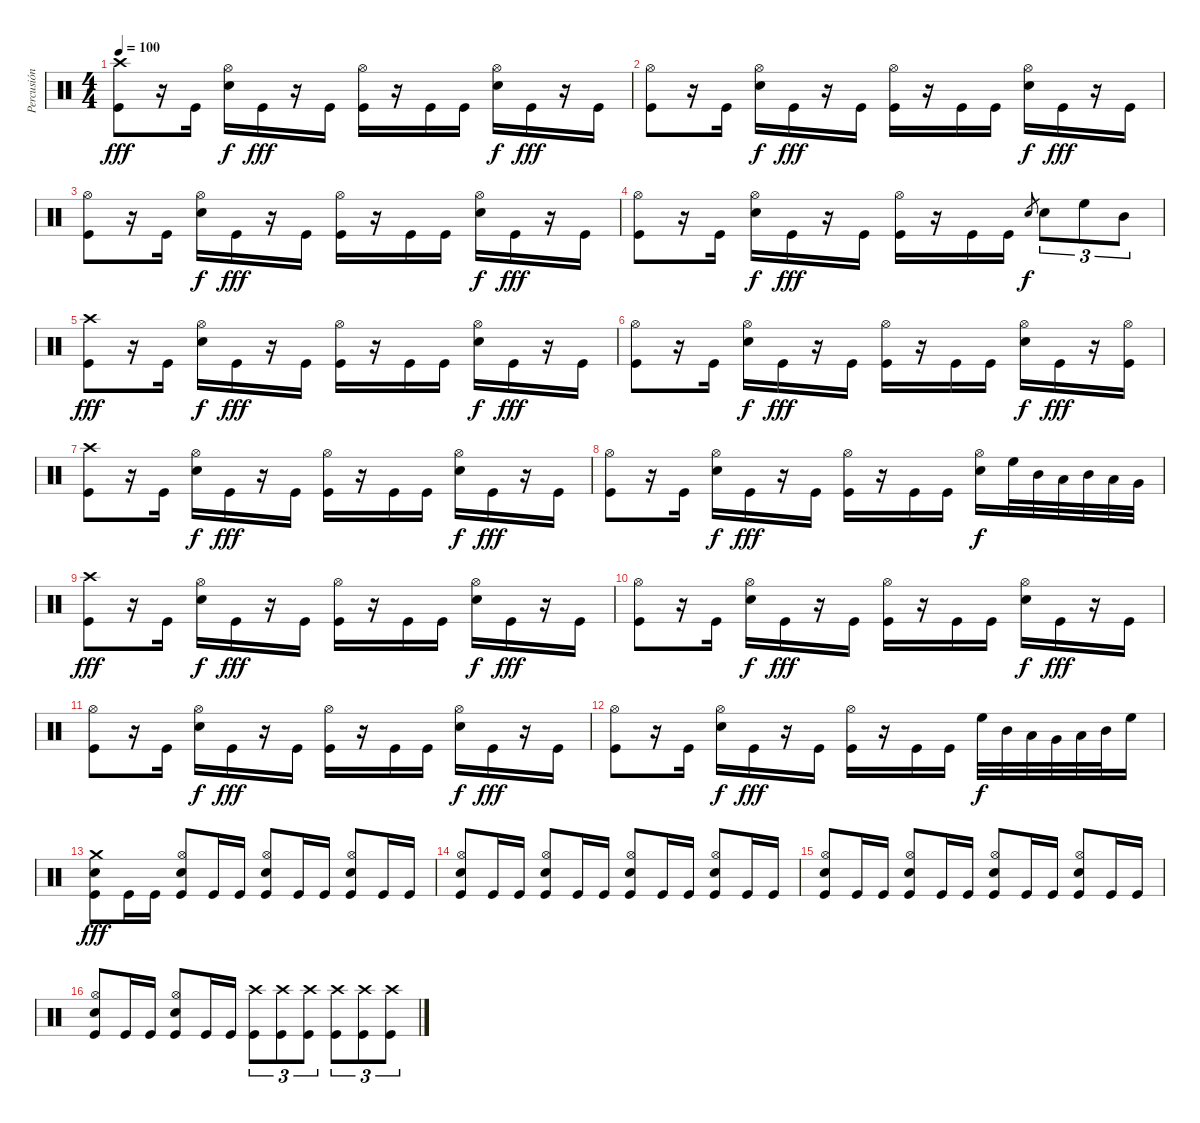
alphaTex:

\track ("Percusión" "Percusión") {instrument percussion}
\staff {score}
\articulation defaults
\ts (4 4)
\tempo 100
\clef neutral
\ks c
("Crash high (hit)" "Kick (hit)").8{dy fff} r.16 "Kick (hit)".16 ("Hi-Hat (open)" "Electric Snare (hit)").16{dy f} "Kick (hit)".16{dy fff} r.16 "Kick (hit)".16 ("Hi-Hat (open)" "Kick (hit)").16 r.16 "Kick (hit)".16 "Kick (hit)".16 ("Hi-Hat (open)" "Electric Snare (hit)").16{dy f} "Kick (hit)".16{dy fff} r.16 "Kick (hit)".16 |
("Hi-Hat (open)" "Kick (hit)").8 r.16 "Kick (hit)".16 ("Hi-Hat (open)" "Electric Snare (hit)").16{dy f} "Kick (hit)".16{dy fff} r.16 "Kick (hit)".16 ("Hi-Hat (open)" "Kick (hit)").16 r.16 "Kick (hit)".16 "Kick (hit)".16 ("Hi-Hat (open)" "Electric Snare (hit)").16{dy f} "Kick (hit)".16{dy fff} r.16 "Kick (hit)".16 |
("Hi-Hat (open)" "Kick (hit)").8 r.16 "Kick (hit)".16 ("Hi-Hat (open)" "Electric Snare (hit)").16{dy f} "Kick (hit)".16{dy fff} r.16 "Kick (hit)".16 ("Hi-Hat (open)" "Kick (hit)").16 r.16 "Kick (hit)".16 "Kick (hit)".16 ("Hi-Hat (open)" "Electric Snare (hit)").16{dy f} "Kick (hit)".16{dy fff} r.16 "Kick (hit)".16 |
("Hi-Hat (open)" "Kick (hit)").8 r.16 "Kick (hit)".16 ("Hi-Hat (open)" "Electric Snare (hit)").16{dy f} "Kick (hit)".16{dy fff} r.16 "Kick (hit)".16 ("Hi-Hat (open)" "Kick (hit)").16 r.16 "Kick (hit)".16 "Kick (hit)".16 "Electric Snare (hit)".8{gr dy f} "Electric Snare (hit)".8{tu (3 2)} "High Floor Tom (hit)".8{tu (3 2)} "Mid Tom (hit)".8{tu (3 2)} |
("Crash high (hit)" "Kick (hit)").8{dy fff} r.16 "Kick (hit)".16 ("Hi-Hat (open)" "Electric Snare (hit)").16{dy f} "Kick (hit)".16{dy fff} r.16 "Kick (hit)".16 ("Hi-Hat (open)" "Kick (hit)").16 r.16 "Kick (hit)".16 "Kick (hit)".16 ("Hi-Hat (open)" "Electric Snare (hit)").16{dy f} "Kick (hit)".16{dy fff} r.16 "Kick (hit)".16 |
("Hi-Hat (open)" "Kick (hit)").8 r.16 "Kick (hit)".16 ("Hi-Hat (open)" "Electric Snare (hit)").16{dy f} "Kick (hit)".16{dy fff} r.16 "Kick (hit)".16 ("Hi-Hat (open)" "Kick (hit)").16 r.16 "Kick (hit)".16 "Kick (hit)".16 ("Hi-Hat (open)" "Electric Snare (hit)").16{dy f} "Kick (hit)".16{dy fff} r.16 ("Hi-Hat (open)" "Kick (hit)").16 |
("Crash high (hit)" "Kick (hit)").8 r.16 "Kick (hit)".16 ("Hi-Hat (open)" "Electric Snare (hit)").16{dy f} "Kick (hit)".16{dy fff} r.16 "Kick (hit)".16 ("Hi-Hat (open)" "Kick (hit)").16 r.16 "Kick (hit)".16 "Kick (hit)".16 ("Hi-Hat (open)" "Electric Snare (hit)").16{dy f} "Kick (hit)".16{dy fff} r.16 "Kick (hit)".16 |
("Hi-Hat (open)" "Kick (hit)").8 r.16 "Kick (hit)".16 ("Hi-Hat (open)" "Electric Snare (hit)").16{dy f} "Kick (hit)".16{dy fff} r.16 "Kick (hit)".16 ("Hi-Hat (open)" "Kick (hit)").16 r.16 "Kick (hit)".16 "Kick (hit)".16 ("Hi-Hat (open)" "Electric Snare (hit)").16{dy f} "High Floor Tom (hit)".32 "Mid Tom (hit)".32 "Low Tom (hit)".32 "Mid Tom (hit)".32 "Low Tom (hit)".32 "Very Low Tom (hit)".32 |
("Crash high (hit)" "Kick (hit)").8{dy fff} r.16 "Kick (hit)".16 ("Hi-Hat (open)" "Electric Snare (hit)").16{dy f} "Kick (hit)".16{dy fff} r.16 "Kick (hit)".16 ("Hi-Hat (open)" "Kick (hit)").16 r.16 "Kick (hit)".16 "Kick (hit)".16 ("Hi-Hat (open)" "Electric Snare (hit)").16{dy f} "Kick (hit)".16{dy fff} r.16 "Kick (hit)".16 |
("Hi-Hat (open)" "Kick (hit)").8 r.16 "Kick (hit)".16 ("Hi-Hat (open)" "Electric Snare (hit)").16{dy f} "Kick (hit)".16{dy fff} r.16 "Kick (hit)".16 ("Hi-Hat (open)" "Kick (hit)").16 r.16 "Kick (hit)".16 "Kick (hit)".16 ("Hi-Hat (open)" "Electric Snare (hit)").16{dy f} "Kick (hit)".16{dy fff} r.16 "Kick (hit)".16 |
("Hi-Hat (open)" "Kick (hit)").8 r.16 "Kick (hit)".16 ("Hi-Hat (open)" "Electric Snare (hit)").16{dy f} "Kick (hit)".16{dy fff} r.16 "Kick (hit)".16 ("Hi-Hat (open)" "Kick (hit)").16 r.16 "Kick (hit)".16 "Kick (hit)".16 ("Hi-Hat (open)" "Electric Snare (hit)").16{dy f} "Kick (hit)".16{dy fff} r.16 "Kick (hit)".16 |
("Hi-Hat (open)" "Kick (hit)").8 r.16 "Kick (hit)".16 ("Hi-Hat (open)" "Electric Snare (hit)").16{dy f} "Kick (hit)".16{dy fff} r.16 "Kick (hit)".16 ("Hi-Hat (open)" "Kick (hit)").16 r.16 "Kick (hit)".16 "Kick (hit)".16 "High Floor Tom (hit)".32{dy f} "Mid Tom (hit)".32 "Low Tom (hit)".32 "Very Low Tom (hit)".32 "Low Tom (hit)".32 "Mid Tom (hit)".32 "High Floor Tom (hit)".16 |
("Crash medium (hit)" "Electric Snare (hit)" "Kick (hit)").8{dy fff} "Kick (hit)".16 "Kick (hit)".16 ("Hi-Hat (open)" "Electric Snare (hit)" "Kick (hit)").8 "Kick (hit)".16 "Kick (hit)".16 ("Hi-Hat (open)" "Electric Snare (hit)" "Kick (hit)").8 "Kick (hit)".16 "Kick (hit)".16 ("Hi-Hat (open)" "Electric Snare (hit)" "Kick (hit)").8 "Kick (hit)".16 "Kick (hit)".16 |
("Hi-Hat (open)" "Electric Snare (hit)" "Kick (hit)").8 "Kick (hit)".16 "Kick (hit)".16 ("Hi-Hat (open)" "Electric Snare (hit)" "Kick (hit)").8 "Kick (hit)".16 "Kick (hit)".16 ("Hi-Hat (open)" "Electric Snare (hit)" "Kick (hit)").8 "Kick (hit)".16 "Kick (hit)".16 ("Hi-Hat (open)" "Electric Snare (hit)" "Kick (hit)").8 "Kick (hit)".16 "Kick (hit)".16 |
("Hi-Hat (open)" "Electric Snare (hit)" "Kick (hit)").8 "Kick (hit)".16 "Kick (hit)".16 ("Hi-Hat (open)" "Electric Snare (hit)" "Kick (hit)").8 "Kick (hit)".16 "Kick (hit)".16 ("Hi-Hat (open)" "Electric Snare (hit)" "Kick (hit)").8 "Kick (hit)".16 "Kick (hit)".16 ("Hi-Hat (open)" "Electric Snare (hit)" "Kick (hit)").8 "Kick (hit)".16 "Kick (hit)".16 |
("Hi-Hat (open)" "Electric Snare (hit)" "Kick (hit)").8 "Kick (hit)".16 "Kick (hit)".16 ("Hi-Hat (open)" "Electric Snare (hit)" "Kick (hit)").8 "Kick (hit)".16 "Kick (hit)".16 ("Crash high (hit)" "Kick (hit)").8{tu (3 2)} ("Crash high (hit)" "Kick (hit)").8{tu (3 2)} ("Crash high (hit)" "Kick (hit)").8{tu (3 2)} ("Crash high (hit)" "Kick (hit)").8{tu (3 2)} ("Crash high (hit)" "Kick (hit)").8{tu (3 2)} ("Crash high (hit)" "Kick (hit)").8{tu (3 2)}
